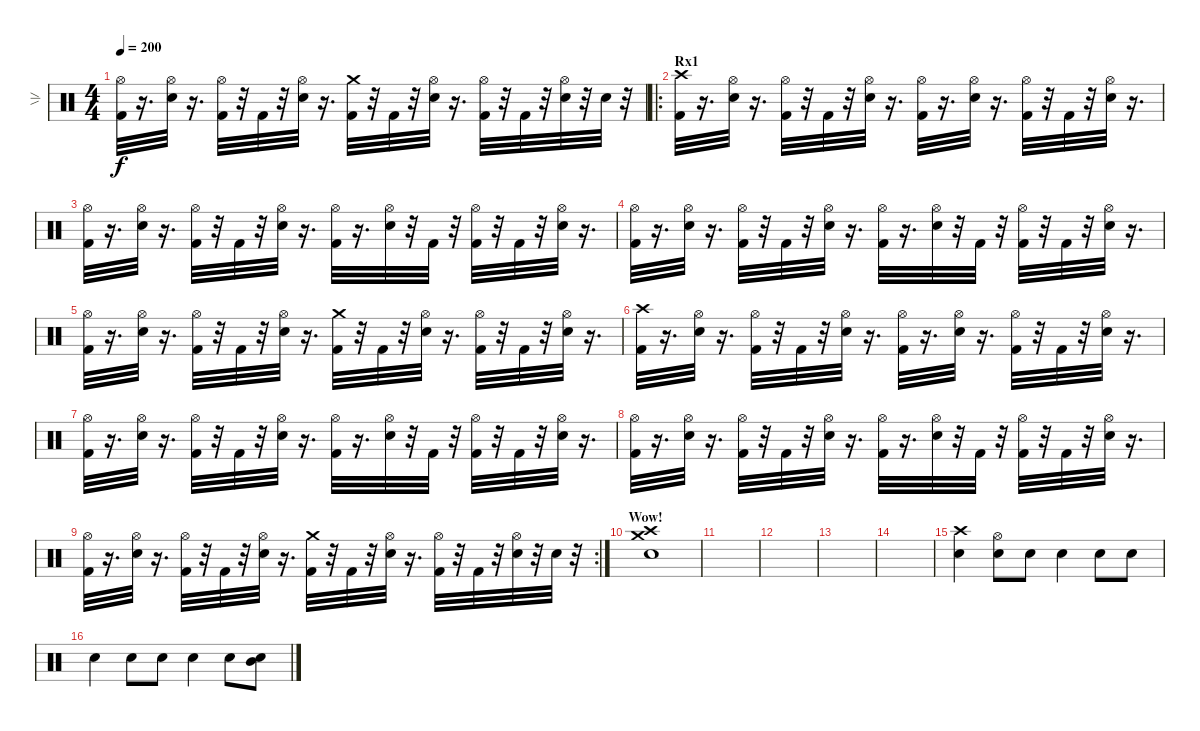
\track ("  \\|/" "  \\|/") {instrument percussion}
\staff {score}
\articulation defaults
\ts (4 4)
\tempo 200
\clef neutral
\ks c
("Hi-Hat (open)" "Kick (hit) 2").32{dy f} r.16{d} ("Snare (hit) 2" "Hi-Hat (open)").32 r.16{d} ("Hi-Hat (open)" "Kick (hit) 2").32 r.32 "Kick (hit) 2".32 r.32 ("Snare (hit) 2" "Hi-Hat (open)").32 r.16{d} ("Crash medium (hit)" "Kick (hit) 2").32 r.32 "Kick (hit) 2".32 r.32 ("Hi-Hat (open)" "Snare (hit) 2").32 r.16{d} ("Kick (hit) 2" "Hi-Hat (open)").32 r.32 "Kick (hit) 2".32 r.32 ("Snare (hit) 2" "Hi-Hat (open)").32 r.32 "Snare (hit) 2".32 r.32 |
\ro
\section ("" "Rx1")
("Kick (hit) 2" "Crash high (hit)").32 r.16{d} ("Snare (hit) 2" "Hi-Hat (open)").32 r.16{d} ("Kick (hit) 2" "Hi-Hat (open)").32 r.32 "Kick (hit) 2".32 r.32 ("Hi-Hat (open)" "Snare (hit) 2").32 r.16{d} ("Kick (hit) 2" "Hi-Hat (open)").32 r.16{d} ("Snare (hit) 2" "Hi-Hat (open)").32 r.16{d} ("Kick (hit) 2" "Hi-Hat (open)").32 r.32 "Kick (hit) 2".32 r.32 ("Snare (hit) 2" "Hi-Hat (open)").32 r.16{d} |
("Hi-Hat (open)" "Kick (hit) 2").32 r.16{d} ("Hi-Hat (open)" "Snare (hit) 2").32 r.16{d} ("Hi-Hat (open)" "Kick (hit) 2").32 r.32 "Kick (hit) 2".32 r.32 ("Hi-Hat (open)" "Snare (hit) 2").32 r.16{d} ("Hi-Hat (open)" "Kick (hit) 2").32 r.16{d} ("Hi-Hat (open)" "Snare (hit) 2").32 r.32 "Kick (hit) 2".32 r.32 ("Hi-Hat (open)" "Kick (hit) 2").32 r.32 "Kick (hit) 2".32 r.32 ("Snare (hit) 2" "Hi-Hat (open)").32 r.16{d} |
("Hi-Hat (open)" "Kick (hit) 2").32 r.16{d} ("Snare (hit) 2" "Hi-Hat (open)").32 r.16{d} ("Kick (hit) 2" "Hi-Hat (open)").32 r.32 "Kick (hit) 2".32 r.32 ("Hi-Hat (open)" "Snare (hit) 2").32 r.16{d} ("Kick (hit) 2" "Hi-Hat (open)").32 r.16{d} ("Snare (hit) 2" "Hi-Hat (open)").32 r.32 "Kick (hit) 2".32 r.32 ("Hi-Hat (open)" "Kick (hit) 2").32 r.32 "Kick (hit) 2".32 r.32 ("Snare (hit) 2" "Hi-Hat (open)").32 r.16{d} |
("Kick (hit) 2" "Hi-Hat (open)").32 r.16{d} ("Hi-Hat (open)" "Snare (hit) 2").32 r.16{d} ("Kick (hit) 2" "Hi-Hat (open)").32 r.32 "Kick (hit) 2".32 r.32 ("Snare (hit) 2" "Hi-Hat (open)").32 r.16{d} ("Crash medium (hit)" "Kick (hit) 2").32 r.32 "Kick (hit) 2".32 r.32 ("Hi-Hat (open)" "Snare (hit) 2").32 r.16{d} ("Hi-Hat (open)" "Kick (hit) 2").32 r.32 "Kick (hit) 2".32 r.32 ("Snare (hit) 2" "Hi-Hat (open)").32 r.16{d} |
("Crash high (hit)" "Kick (hit) 2").32 r.16{d} ("Snare (hit) 2" "Hi-Hat (open)").32 r.16{d} ("Kick (hit) 2" "Hi-Hat (open)").32 r.32 "Kick (hit) 2".32 r.32 ("Hi-Hat (open)" "Snare (hit) 2").32 r.16{d} ("Kick (hit) 2" "Hi-Hat (open)").32 r.16{d} ("Hi-Hat (open)" "Snare (hit) 2").32 r.16{d} ("Kick (hit) 2" "Hi-Hat (open)").32 r.32 "Kick (hit) 2".32 r.32 ("Snare (hit) 2" "Hi-Hat (open)").32 r.16{d} |
("Hi-Hat (open)" "Kick (hit) 2").32 r.16{d} ("Snare (hit) 2" "Hi-Hat (open)").32 r.16{d} ("Hi-Hat (open)" "Kick (hit) 2").32 r.32 "Kick (hit) 2".32 r.32 ("Snare (hit) 2" "Hi-Hat (open)").32 r.16{d} ("Hi-Hat (open)" "Kick (hit) 2").32 r.16{d} ("Snare (hit) 2" "Hi-Hat (open)").32 r.32 "Kick (hit) 2".32 r.32 ("Kick (hit) 2" "Hi-Hat (open)").32 r.32 "Kick (hit) 2".32 r.32 ("Hi-Hat (open)" "Snare (hit) 2").32 r.16{d} |
("Hi-Hat (open)" "Kick (hit) 2").32 r.16{d} ("Hi-Hat (open)" "Snare (hit) 2").32 r.16{d} ("Hi-Hat (open)" "Kick (hit) 2").32 r.32 "Kick (hit) 2".32 r.32 ("Hi-Hat (open)" "Snare (hit) 2").32 r.16{d} ("Kick (hit) 2" "Hi-Hat (open)").32 r.16{d} ("Hi-Hat (open)" "Snare (hit) 2").32 r.32 "Kick (hit) 2".32 r.32 ("Hi-Hat (open)" "Kick (hit) 2").32 r.32 "Kick (hit) 2".32 r.32 ("Snare (hit) 2" "Hi-Hat (open)").32 r.16{d} |
\rc 2
("Hi-Hat (open)" "Kick (hit) 2").32 r.16{d} ("Snare (hit) 2" "Hi-Hat (open)").32 r.16{d} ("Hi-Hat (open)" "Kick (hit) 2").32 r.32 "Kick (hit) 2".32 r.32 ("Snare (hit) 2" "Hi-Hat (open)").32 r.16{d} ("Crash medium (hit)" "Kick (hit) 2").32 r.32 "Kick (hit) 2".32 r.32 ("Hi-Hat (open)" "Snare (hit) 2").32 r.16{d} ("Kick (hit) 2" "Hi-Hat (open)").32 r.32 "Kick (hit) 2".32 r.32 ("Snare (hit) 2" "Hi-Hat (open)").32 r.32 "Snare (hit) 2".32 r.32 |
\section ("" "Wow!")
("Crash high (hit)" "Crash medium (hit)" "Snare (hit) 2").1 |
|
|
|
|
("Crash high (hit)" "Snare (hit) 2").4 ("Hi-Hat (open)" "Snare (hit) 2").8 "Snare (hit) 2".8 "Snare (hit) 2".4 "Snare (hit) 2".8 "Snare (hit) 2".8 |
"Snare (hit) 2".4 "Snare (hit) 2".8 "Snare (hit) 2".8 "Snare (hit) 2".4 "Snare (hit) 2".8 ("Mid Tom (hit)" "Snare (hit) 2").8
